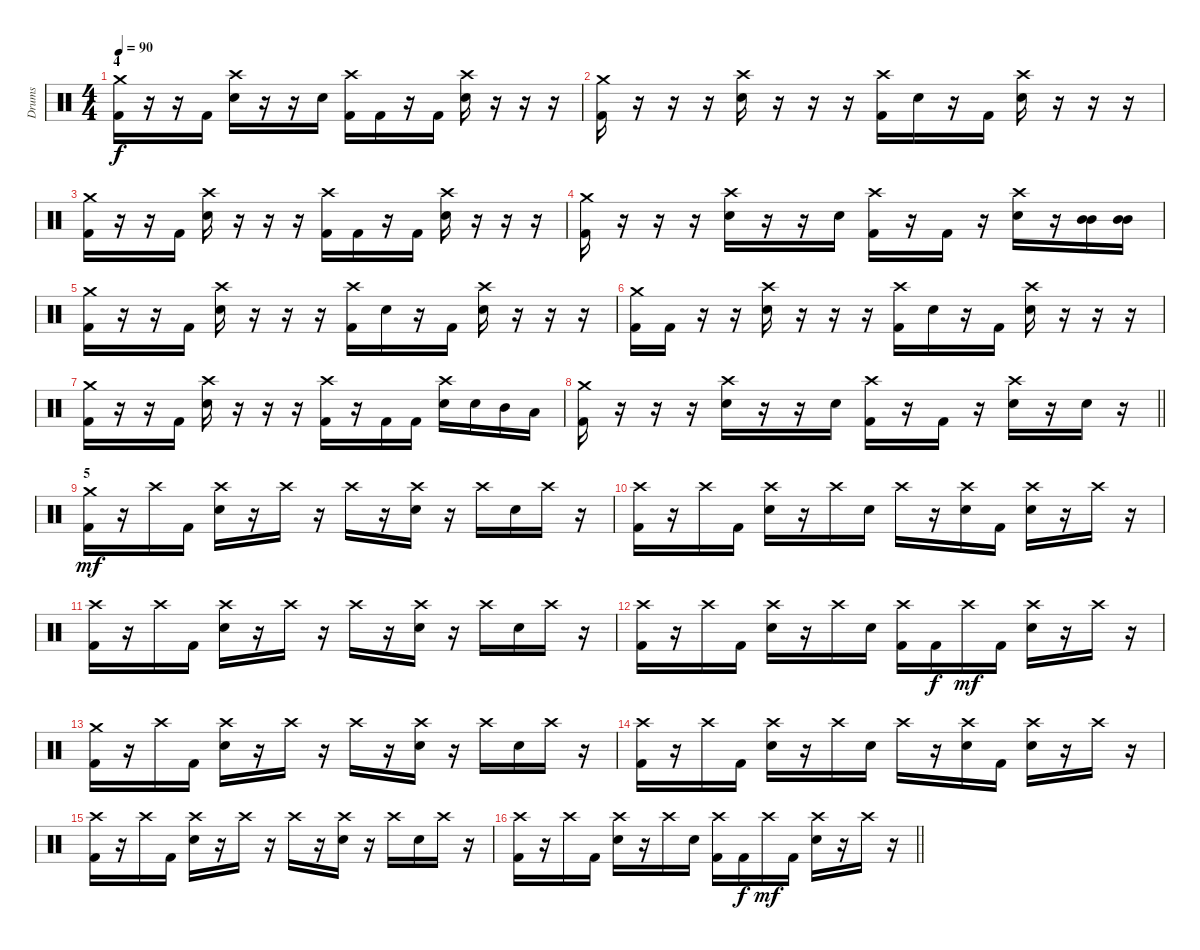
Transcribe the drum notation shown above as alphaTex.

\track ("Drums" "Drums") {instrument percussion}
\staff {score}
\articulation defaults
\ts (4 4)
\section ("" "4")
\tempo 90
\clef neutral
\ks c
("Crash medium (hit)" "Kick (hit) 2").16{dy f} r.16 r.16 "Kick (hit) 2".16 ("Crash high (hit)" "Electric Snare (hit)").16 r.16 r.16 "Electric Snare (hit)".16 ("Crash high (hit)" "Kick (hit) 2").16 "Kick (hit) 2".16 r.16 "Kick (hit) 2".16 ("Crash high (hit)" "Electric Snare (hit)").16 r.16 r.16 r.16 |
("Crash medium (hit)" "Kick (hit) 2").16 r.16 r.16 r.16 ("Crash high (hit)" "Electric Snare (hit)").16 r.16 r.16 r.16 ("Crash high (hit)" "Kick (hit) 2").16 "Electric Snare (hit)".16 r.16 "Kick (hit) 2".16 ("Crash high (hit)" "Electric Snare (hit)").16 r.16 r.16 r.16 |
("Crash medium (hit)" "Kick (hit) 2").16 r.16 r.16 "Kick (hit) 2".16 ("Crash high (hit)" "Electric Snare (hit)").16 r.16 r.16 r.16 ("Crash high (hit)" "Kick (hit) 2").16 "Kick (hit) 2".16 r.16 "Kick (hit) 2".16 ("Crash high (hit)" "Electric Snare (hit)").16 r.16 r.16 r.16 |
("Crash medium (hit)" "Kick (hit) 2").16 r.16 r.16 r.16 ("Crash high (hit)" "Electric Snare (hit)").16 r.16 r.16 "Electric Snare (hit)".16 ("Crash high (hit)" "Kick (hit) 2").16 r.16 "Kick (hit) 2".16 r.16 ("Crash high (hit)" "Electric Snare (hit)").16 r.16 ("Mid Tom (hit)" "Mid Tom (hit)").16 ("Mid Tom (hit)" "Mid Tom (hit)").16 |
("Crash medium (hit)" "Kick (hit) 2").16 r.16 r.16 "Kick (hit) 2".16 ("Crash high (hit)" "Electric Snare (hit)").16 r.16 r.16 r.16 ("Crash high (hit)" "Kick (hit) 2").16 "Electric Snare (hit)".16 r.16 "Kick (hit) 2".16 ("Crash high (hit)" "Electric Snare (hit)").16 r.16 r.16 r.16 |
("Crash medium (hit)" "Kick (hit) 2").16 "Kick (hit) 2".16 r.16 r.16 ("Crash high (hit)" "Electric Snare (hit)").16 r.16 r.16 r.16 ("Crash high (hit)" "Kick (hit) 2").16 "Electric Snare (hit)".16 r.16 "Kick (hit) 2".16 ("Crash high (hit)" "Electric Snare (hit)").16 r.16 r.16 r.16 |
("Crash medium (hit)" "Kick (hit) 2").16 r.16 r.16 "Kick (hit) 2".16 ("Crash high (hit)" "Electric Snare (hit)").16 r.16 r.16 r.16 ("Crash high (hit)" "Kick (hit) 2").16 r.16 "Kick (hit) 2".16 "Kick (hit) 2".16 ("Crash high (hit)" "Electric Snare (hit)").16 "Electric Snare (hit)".16 "Mid Tom (hit)".16 "Low Tom (hit)".16 |
\barLineRight lightlight
("Crash medium (hit)" "Kick (hit) 2").16 r.16 r.16 r.16 ("Crash high (hit)" "Electric Snare (hit)").16 r.16 r.16 "Electric Snare (hit)".16 ("Crash high (hit)" "Kick (hit) 2").16 r.16 "Kick (hit) 2".16 r.16 ("Crash high (hit)" "Electric Snare (hit)").16 r.16 "Electric Snare (hit)".16 r.16 |
\section ("" "5")
("Crash medium (hit)" "Kick (hit) 2").16{dy mf} r.16 "Crash high (hit)".16 "Kick (hit) 2".16 ("Crash high (hit)" "Electric Snare (hit)").16 r.16 "Crash high (hit)".16 r.16 "Crash high (hit)".16 r.16 ("Crash high (hit)" "Electric Snare (hit)").16 r.16 "Crash high (hit)".16 "Electric Snare (hit)".16 "Crash high (hit)".16 r.16 |
("Crash high (hit)" "Kick (hit) 2").16 r.16 "Crash high (hit)".16 "Kick (hit) 2".16 ("Crash high (hit)" "Electric Snare (hit)").16 r.16 "Crash high (hit)".16 "Electric Snare (hit)".16 "Crash high (hit)".16 r.16 ("Crash high (hit)" "Electric Snare (hit)").16 "Kick (hit) 2".16 ("Crash high (hit)" "Electric Snare (hit)").16 r.16 "Crash high (hit)".16 r.16 |
("Crash high (hit)" "Kick (hit) 2").16 r.16 "Crash high (hit)".16 "Kick (hit) 2".16 ("Crash high (hit)" "Electric Snare (hit)").16 r.16 "Crash high (hit)".16 r.16 "Crash high (hit)".16 r.16 ("Crash high (hit)" "Electric Snare (hit)").16 r.16 "Crash high (hit)".16 "Electric Snare (hit)".16 "Crash high (hit)".16 r.16 |
("Crash high (hit)" "Kick (hit) 2").16 r.16 "Crash high (hit)".16 "Kick (hit) 2".16 ("Crash high (hit)" "Electric Snare (hit)").16 r.16 "Crash high (hit)".16 "Electric Snare (hit)".16 ("Crash high (hit)" "Kick (hit) 2").16 "Kick (hit) 2".16{dy f} "Crash high (hit)".16{dy mf} "Kick (hit) 2".16 ("Crash high (hit)" "Electric Snare (hit)").16 r.16 "Crash high (hit)".16 r.16 |
("Crash medium (hit)" "Kick (hit) 2").16 r.16 "Crash high (hit)".16 "Kick (hit) 2".16 ("Crash high (hit)" "Electric Snare (hit)").16 r.16 "Crash high (hit)".16 r.16 "Crash high (hit)".16 r.16 ("Crash high (hit)" "Electric Snare (hit)").16 r.16 "Crash high (hit)".16 "Electric Snare (hit)".16 "Crash high (hit)".16 r.16 |
("Crash high (hit)" "Kick (hit) 2").16 r.16 "Crash high (hit)".16 "Kick (hit) 2".16 ("Crash high (hit)" "Electric Snare (hit)").16 r.16 "Crash high (hit)".16 "Electric Snare (hit)".16 "Crash high (hit)".16 r.16 ("Crash high (hit)" "Electric Snare (hit)").16 "Kick (hit) 2".16 ("Crash high (hit)" "Electric Snare (hit)").16 r.16 "Crash high (hit)".16 r.16 |
("Crash high (hit)" "Kick (hit) 2").16 r.16 "Crash high (hit)".16 "Kick (hit) 2".16 ("Crash high (hit)" "Electric Snare (hit)").16 r.16 "Crash high (hit)".16 r.16 "Crash high (hit)".16 r.16 ("Crash high (hit)" "Electric Snare (hit)").16 r.16 "Crash high (hit)".16 "Electric Snare (hit)".16 "Crash high (hit)".16 r.16 |
\barLineRight lightlight
("Crash high (hit)" "Kick (hit) 2").16 r.16 "Crash high (hit)".16 "Kick (hit) 2".16 ("Crash high (hit)" "Electric Snare (hit)").16 r.16 "Crash high (hit)".16 "Electric Snare (hit)".16 ("Crash high (hit)" "Kick (hit) 2").16 "Kick (hit) 2".16{dy f} "Crash high (hit)".16{dy mf} "Kick (hit) 2".16 ("Crash high (hit)" "Electric Snare (hit)").16 r.16 "Crash high (hit)".16 r.16
